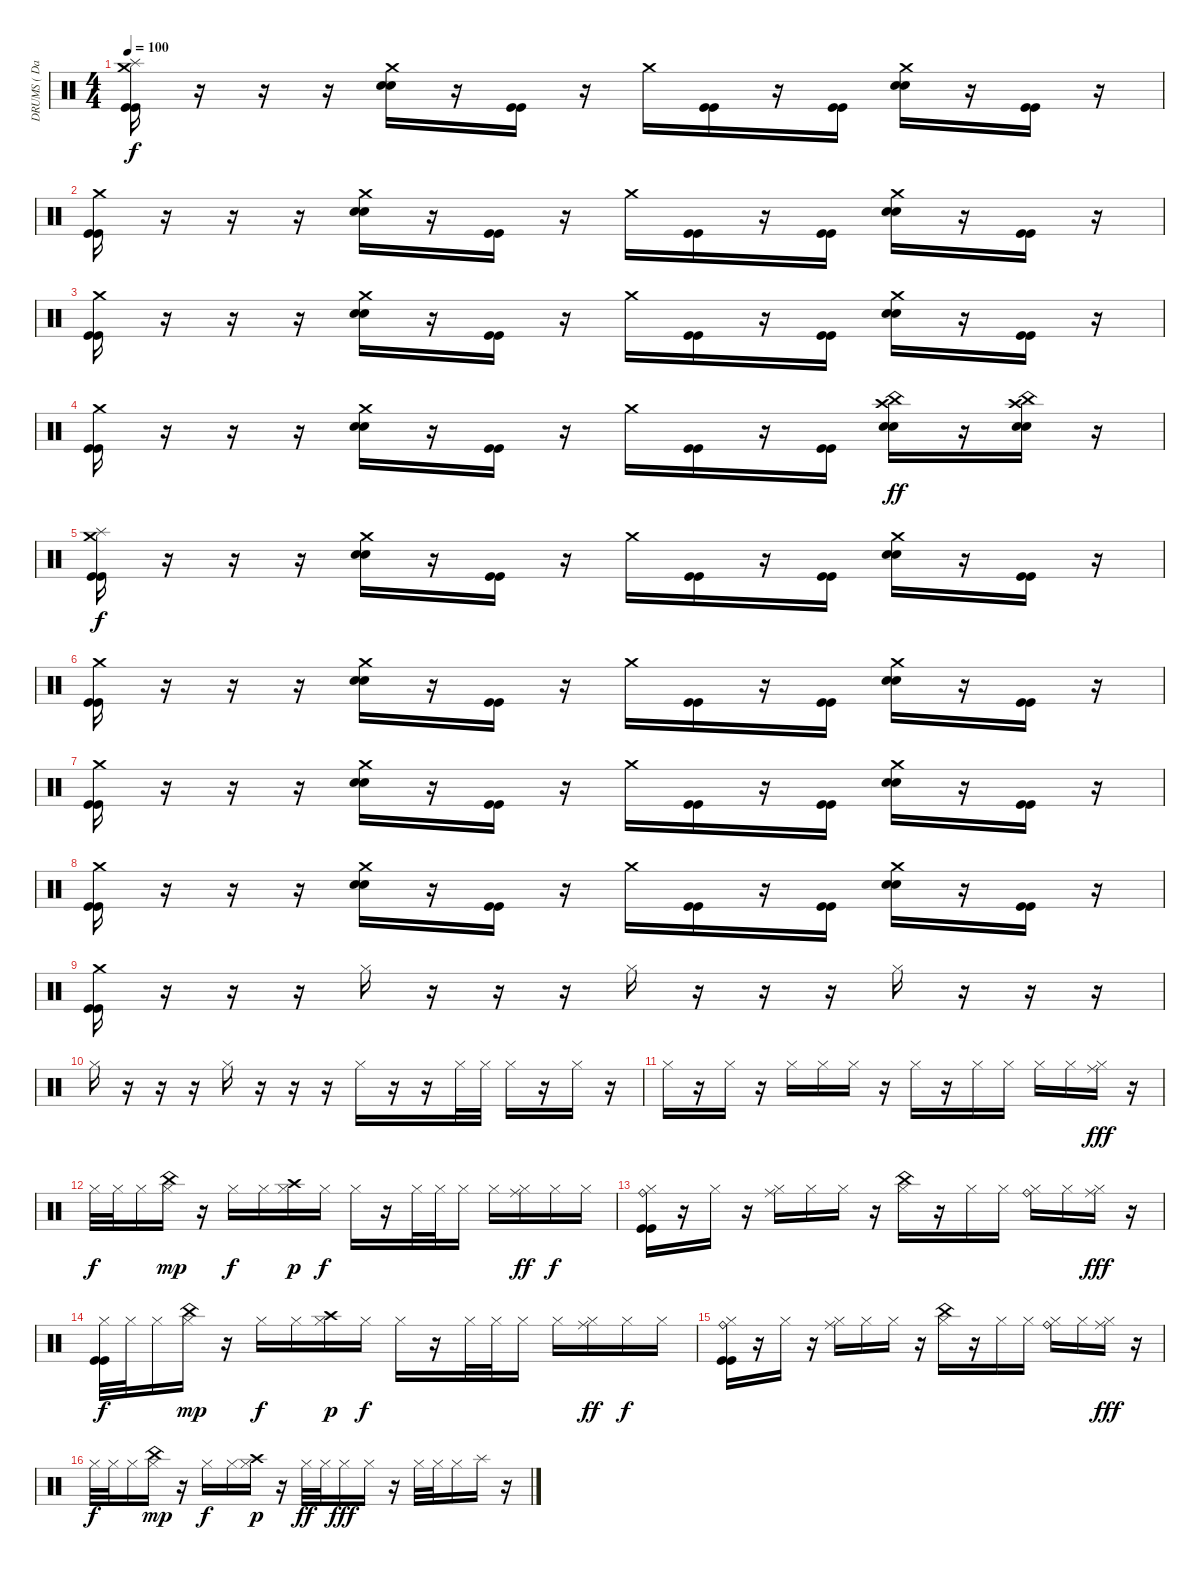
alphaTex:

\track ("DRUMS ( David ) - Wally Balljacker" "DRUMS ( Da") {instrument percussion}
\staff {score}
\articulation defaults
\ts (4 4)
\tempo 100
\clef neutral
\ks c
("Crash medium (hit)" "Splash (hit)" "Kick (hit)" "Kick (hit)").16{dy f} r.16 r.16 r.16 ("Crash medium (hit)" "Electric Snare (hit)" "Electric Snare (hit)").16 r.16 ("Kick (hit)" "Kick (hit)").16 r.16 "Crash medium (hit)".16 ("Kick (hit)" "Kick (hit)").16 r.16 ("Kick (hit)" "Kick (hit)").16 ("Crash medium (hit)" "Electric Snare (hit)" "Electric Snare (hit)").16 r.16 ("Kick (hit)" "Kick (hit)").16 r.16 |
("Crash medium (hit)" "Kick (hit)" "Kick (hit)").16 r.16 r.16 r.16 ("Crash medium (hit)" "Electric Snare (hit)" "Electric Snare (hit)").16 r.16 ("Kick (hit)" "Kick (hit)").16 r.16 "Crash medium (hit)".16 ("Kick (hit)" "Kick (hit)").16 r.16 ("Kick (hit)" "Kick (hit)").16 ("Crash medium (hit)" "Electric Snare (hit)" "Electric Snare (hit)").16 r.16 ("Kick (hit)" "Kick (hit)").16 r.16 |
("Crash medium (hit)" "Kick (hit)" "Kick (hit)").16 r.16 r.16 r.16 ("Crash medium (hit)" "Electric Snare (hit)" "Electric Snare (hit)").16 r.16 ("Kick (hit)" "Kick (hit)").16 r.16 "Crash medium (hit)".16 ("Kick (hit)" "Kick (hit)").16 r.16 ("Kick (hit)" "Kick (hit)").16 ("Crash medium (hit)" "Electric Snare (hit)" "Electric Snare (hit)").16 r.16 ("Kick (hit)" "Kick (hit)").16 r.16 |
("Crash medium (hit)" "Kick (hit)" "Kick (hit)").16 r.16 r.16 r.16 ("Crash medium (hit)" "Electric Snare (hit)" "Electric Snare (hit)").16 r.16 ("Kick (hit)" "Kick (hit)").16 r.16 "Crash medium (hit)".16 ("Kick (hit)" "Kick (hit)").16 r.16 ("Kick (hit)" "Kick (hit)").16 ("Crash high (hit)" "China (hit)" "Electric Snare (hit)" "Electric Snare (hit)").16{dy ff} r.16 ("Crash high (hit)" "China (hit)" "Electric Snare (hit)" "Electric Snare (hit)").16 r.16 |
("Crash medium (hit)" "Splash (hit)" "Kick (hit)" "Kick (hit)").16{dy f} r.16 r.16 r.16 ("Crash medium (hit)" "Electric Snare (hit)" "Electric Snare (hit)").16 r.16 ("Kick (hit)" "Kick (hit)").16 r.16 "Crash medium (hit)".16 ("Kick (hit)" "Kick (hit)").16 r.16 ("Kick (hit)" "Kick (hit)").16 ("Crash medium (hit)" "Electric Snare (hit)" "Electric Snare (hit)").16 r.16 ("Kick (hit)" "Kick (hit)").16 r.16 |
("Crash medium (hit)" "Kick (hit)" "Kick (hit)").16 r.16 r.16 r.16 ("Crash medium (hit)" "Electric Snare (hit)" "Electric Snare (hit)").16 r.16 ("Kick (hit)" "Kick (hit)").16 r.16 "Crash medium (hit)".16 ("Kick (hit)" "Kick (hit)").16 r.16 ("Kick (hit)" "Kick (hit)").16 ("Crash medium (hit)" "Electric Snare (hit)" "Electric Snare (hit)").16 r.16 ("Kick (hit)" "Kick (hit)").16 r.16 |
("Crash medium (hit)" "Kick (hit)" "Kick (hit)").16 r.16 r.16 r.16 ("Crash medium (hit)" "Electric Snare (hit)" "Electric Snare (hit)").16 r.16 ("Kick (hit)" "Kick (hit)").16 r.16 "Crash medium (hit)".16 ("Kick (hit)" "Kick (hit)").16 r.16 ("Kick (hit)" "Kick (hit)").16 ("Crash medium (hit)" "Electric Snare (hit)" "Electric Snare (hit)").16 r.16 ("Kick (hit)" "Kick (hit)").16 r.16 |
("Crash medium (hit)" "Kick (hit)" "Kick (hit)").16 r.16 r.16 r.16 ("Crash medium (hit)" "Electric Snare (hit)" "Electric Snare (hit)").16 r.16 ("Kick (hit)" "Kick (hit)").16 r.16 "Crash medium (hit)".16 ("Kick (hit)" "Kick (hit)").16 r.16 ("Kick (hit)" "Kick (hit)").16 ("Crash medium (hit)" "Electric Snare (hit)" "Electric Snare (hit)").16 r.16 ("Kick (hit)" "Kick (hit)").16 r.16 |
("Crash medium (hit)" "Kick (hit)" "Kick (hit)").16 r.16 r.16 r.16 "Hi-Hat (closed)".16 r.16 r.16 r.16 "Hi-Hat (closed)".16 r.16 r.16 r.16 "Hi-Hat (closed)".16 r.16 r.16 r.16 |
"Hi-Hat (closed)".16 r.16 r.16 r.16 "Hi-Hat (closed)".16 r.16 r.16 r.16 "Hi-Hat (closed)".16 r.16 r.16 "Hi-Hat (closed)".32 "Hi-Hat (closed)".32 "Hi-Hat (closed)".16 r.16 "Hi-Hat (closed)".16 r.16 |
"Hi-Hat (closed)".16 r.16 "Hi-Hat (closed)".16 r.16 "Hi-Hat (closed)".16 "Hi-Hat (closed)".16 "Hi-Hat (closed)".16 r.16 "Hi-Hat (closed)".16 r.16 "Hi-Hat (closed)".16 "Hi-Hat (closed)".16 "Hi-Hat (closed)".16 "Hi-Hat (closed)".16 ("Hi-Hat (closed)" "Ride (middle)").16{dy fff} r.16 |
"Hi-Hat (closed)".32{dy f} "Hi-Hat (closed)".32 "Hi-Hat (closed)".16 ("Hi-Hat (closed)" "China (hit)").16{dy mp} r.16 "Hi-Hat (closed)".16{dy f} "Hi-Hat (closed)".16 ("Hi-Hat (closed)" "Crash high (hit)").16{dy p} "Hi-Hat (closed)".16{dy f} "Hi-Hat (closed)".16 r.16 "Hi-Hat (closed)".32 "Hi-Hat (closed)".32 "Hi-Hat (closed)".16 "Hi-Hat (closed)".16 ("Hi-Hat (closed)" "Ride (middle)").16{dy ff} "Hi-Hat (closed)".16{dy f} "Hi-Hat (closed)".16 |
("Hi-Hat (closed)" "Ride (bell)" "Kick (hit)" "Kick (hit)").16 r.16 "Hi-Hat (closed)".16 r.16 ("Hi-Hat (closed)" "Ride (middle)").16 "Hi-Hat (closed)".16 "Hi-Hat (closed)".16 r.16 ("Hi-Hat (closed)" "China (hit)").16 r.16 "Hi-Hat (closed)".16 "Hi-Hat (closed)".16 ("Hi-Hat (closed)" "Ride (bell)").16 "Hi-Hat (closed)".16 ("Hi-Hat (closed)" "Ride (middle)").16{dy fff} r.16 |
("Hi-Hat (closed)" "Kick (hit)" "Kick (hit)").32{dy f} "Hi-Hat (closed)".32 "Hi-Hat (closed)".16 ("Hi-Hat (closed)" "China (hit)").16{dy mp} r.16 "Hi-Hat (closed)".16{dy f} "Hi-Hat (closed)".16 ("Hi-Hat (closed)" "Crash high (hit)").16{dy p} "Hi-Hat (closed)".16{dy f} "Hi-Hat (closed)".16 r.16 "Hi-Hat (closed)".32 "Hi-Hat (closed)".32 "Hi-Hat (closed)".16 "Hi-Hat (closed)".16 ("Hi-Hat (closed)" "Ride (middle)").16{dy ff} "Hi-Hat (closed)".16{dy f} "Hi-Hat (closed)".16 |
("Hi-Hat (closed)" "Ride (bell)" "Kick (hit)" "Kick (hit)").16 r.16 "Hi-Hat (closed)".16 r.16 ("Hi-Hat (closed)" "Ride (middle)").16 "Hi-Hat (closed)".16 "Hi-Hat (closed)".16 r.16 ("Hi-Hat (closed)" "China (hit)").16 r.16 "Hi-Hat (closed)".16 "Hi-Hat (closed)".16 ("Hi-Hat (closed)" "Ride (bell)").16 "Hi-Hat (closed)".16 ("Hi-Hat (closed)" "Ride (middle)").16{dy fff} r.16 |
"Hi-Hat (closed)".32{dy f} "Hi-Hat (closed)".32 "Hi-Hat (closed)".16 ("Hi-Hat (closed)" "China (hit)").16{dy mp} r.16 "Hi-Hat (closed)".16{dy f} "Hi-Hat (closed)".16 ("Hi-Hat (closed)" "Crash high (hit)").16{dy p} r.16 "Hi-Hat (closed)".32{dy ff} "Hi-Hat (closed)".32 "Hi-Hat (closed)".16{dy fff} "Hi-Hat (closed)".16 r.16 "Hi-Hat (closed)".32 "Hi-Hat (closed)".32 "Hi-Hat (closed)".16 "Splash (hit)".16 r.16
